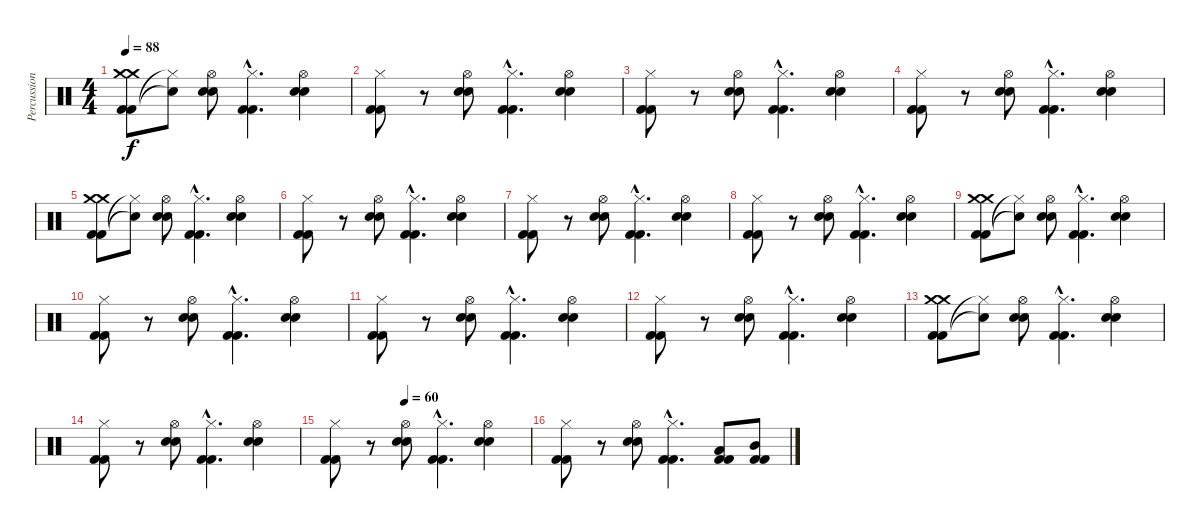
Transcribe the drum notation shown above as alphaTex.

\track ("Percussion" "Percussion") {instrument percussion}
\staff {score}
\articulation defaults
\ts (4 4)
\tempo 88
\clef neutral
\ks c
("Kick (hit) 2" "Kick (hit) 2" "Crash medium (hit)" "Crash medium (hit)").8{dy f} ("Snare (hit)"{t} "Hi-Hat (closed)"{t}).8 ("Snare (hit) 2" "Snare (hit) 2" "Hi-Hat (open)").8 ("Kick (hit) 2"{hac} "Kick (hit) 2"{hac} "Hi-Hat (closed)"{hac}).4{d} ("Snare (hit) 2" "Snare (hit) 2" "Hi-Hat (open)").4 |
("Kick (hit) 2" "Kick (hit) 2" "Hi-Hat (closed)").8 r.8 ("Snare (hit) 2" "Snare (hit) 2" "Hi-Hat (open)").8 ("Kick (hit) 2"{hac} "Kick (hit) 2"{hac} "Hi-Hat (closed)"{hac}).4{d} ("Snare (hit) 2" "Snare (hit) 2" "Hi-Hat (open)").4 |
("Kick (hit) 2" "Kick (hit) 2" "Hi-Hat (closed)").8 r.8 ("Snare (hit) 2" "Snare (hit) 2" "Hi-Hat (open)").8 ("Kick (hit) 2"{hac} "Kick (hit) 2"{hac} "Hi-Hat (closed)"{hac}).4{d} ("Snare (hit) 2" "Snare (hit) 2" "Hi-Hat (open)").4 |
("Kick (hit) 2" "Kick (hit) 2" "Hi-Hat (closed)").8 r.8 ("Snare (hit) 2" "Snare (hit) 2" "Hi-Hat (open)").8 ("Kick (hit) 2"{hac} "Kick (hit) 2"{hac} "Hi-Hat (closed)"{hac}).4{d} ("Snare (hit) 2" "Snare (hit) 2" "Hi-Hat (open)").4 |
("Kick (hit) 2" "Kick (hit) 2" "Crash medium (hit)" "Crash medium (hit)").8 ("Snare (hit)"{t} "Hi-Hat (closed)"{t}).8 ("Snare (hit) 2" "Snare (hit) 2" "Hi-Hat (open)").8 ("Kick (hit) 2"{hac} "Kick (hit) 2"{hac} "Hi-Hat (closed)"{hac}).4{d} ("Snare (hit) 2" "Snare (hit) 2" "Hi-Hat (open)").4 |
("Kick (hit) 2" "Kick (hit) 2" "Hi-Hat (closed)").8 r.8 ("Snare (hit) 2" "Snare (hit) 2" "Hi-Hat (open)").8 ("Kick (hit) 2"{hac} "Kick (hit) 2"{hac} "Hi-Hat (closed)"{hac}).4{d} ("Snare (hit) 2" "Snare (hit) 2" "Hi-Hat (open)").4 |
("Kick (hit) 2" "Kick (hit) 2" "Hi-Hat (closed)").8 r.8 ("Snare (hit) 2" "Snare (hit) 2" "Hi-Hat (open)").8 ("Kick (hit) 2"{hac} "Kick (hit) 2"{hac} "Hi-Hat (closed)"{hac}).4{d} ("Snare (hit) 2" "Snare (hit) 2" "Hi-Hat (open)").4 |
("Kick (hit) 2" "Kick (hit) 2" "Hi-Hat (closed)").8 r.8 ("Snare (hit) 2" "Snare (hit) 2" "Hi-Hat (open)").8 ("Kick (hit) 2"{hac} "Kick (hit) 2"{hac} "Hi-Hat (closed)"{hac}).4{d} ("Snare (hit) 2" "Snare (hit) 2" "Hi-Hat (open)").4 |
("Kick (hit) 2" "Kick (hit) 2" "Crash medium (hit)" "Crash medium (hit)").8 ("Snare (hit)"{t} "Hi-Hat (closed)"{t}).8 ("Snare (hit) 2" "Snare (hit) 2" "Hi-Hat (open)").8 ("Kick (hit) 2"{hac} "Kick (hit) 2"{hac} "Hi-Hat (closed)"{hac}).4{d} ("Snare (hit) 2" "Snare (hit) 2" "Hi-Hat (open)").4 |
("Kick (hit) 2" "Kick (hit) 2" "Hi-Hat (closed)").8 r.8 ("Snare (hit) 2" "Snare (hit) 2" "Hi-Hat (open)").8 ("Kick (hit) 2"{hac} "Kick (hit) 2"{hac} "Hi-Hat (closed)"{hac}).4{d} ("Snare (hit) 2" "Snare (hit) 2" "Hi-Hat (open)").4 |
("Kick (hit) 2" "Kick (hit) 2" "Hi-Hat (closed)").8 r.8 ("Snare (hit) 2" "Snare (hit) 2" "Hi-Hat (open)").8 ("Kick (hit) 2"{hac} "Kick (hit) 2"{hac} "Hi-Hat (closed)"{hac}).4{d} ("Snare (hit) 2" "Snare (hit) 2" "Hi-Hat (open)").4 |
("Kick (hit) 2" "Kick (hit) 2" "Hi-Hat (closed)").8 r.8 ("Snare (hit) 2" "Snare (hit) 2" "Hi-Hat (open)").8 ("Kick (hit) 2"{hac} "Kick (hit) 2"{hac} "Hi-Hat (closed)"{hac}).4{d} ("Snare (hit) 2" "Snare (hit) 2" "Hi-Hat (open)").4 |
("Kick (hit) 2" "Kick (hit) 2" "Crash medium (hit)" "Crash medium (hit)").8 ("Snare (hit)"{t} "Hi-Hat (closed)"{t}).8 ("Snare (hit) 2" "Snare (hit) 2" "Hi-Hat (open)").8 ("Kick (hit) 2"{hac} "Kick (hit) 2"{hac} "Hi-Hat (closed)"{hac}).4{d} ("Snare (hit) 2" "Snare (hit) 2" "Hi-Hat (open)").4 |
("Kick (hit) 2" "Kick (hit) 2" "Hi-Hat (closed)").8 r.8 ("Snare (hit) 2" "Snare (hit) 2" "Hi-Hat (open)").8 ("Kick (hit) 2"{hac} "Kick (hit) 2"{hac} "Hi-Hat (closed)"{hac}).4{d} ("Snare (hit) 2" "Snare (hit) 2" "Hi-Hat (open)").4 |
\tempo (60 0.375)
("Kick (hit) 2" "Kick (hit) 2" "Hi-Hat (closed)").8 r.8 ("Snare (hit) 2" "Snare (hit) 2" "Hi-Hat (open)").8 ("Kick (hit) 2"{hac} "Kick (hit) 2"{hac} "Hi-Hat (closed)"{hac}).4{d} ("Snare (hit) 2" "Snare (hit) 2" "Hi-Hat (open)").4 |
("Kick (hit) 2" "Kick (hit) 2" "Hi-Hat (closed)").8 r.8 ("Snare (hit) 2" "Snare (hit) 2" "Hi-Hat (open)").8 ("Kick (hit) 2"{hac} "Kick (hit) 2"{hac} "Hi-Hat (closed)"{hac}).4{d} ("Kick (hit) 2" "Kick (hit) 2" "Low Tom (hit)").8 ("Kick (hit) 2" "Kick (hit) 2" "Mid Tom (hit)").8
